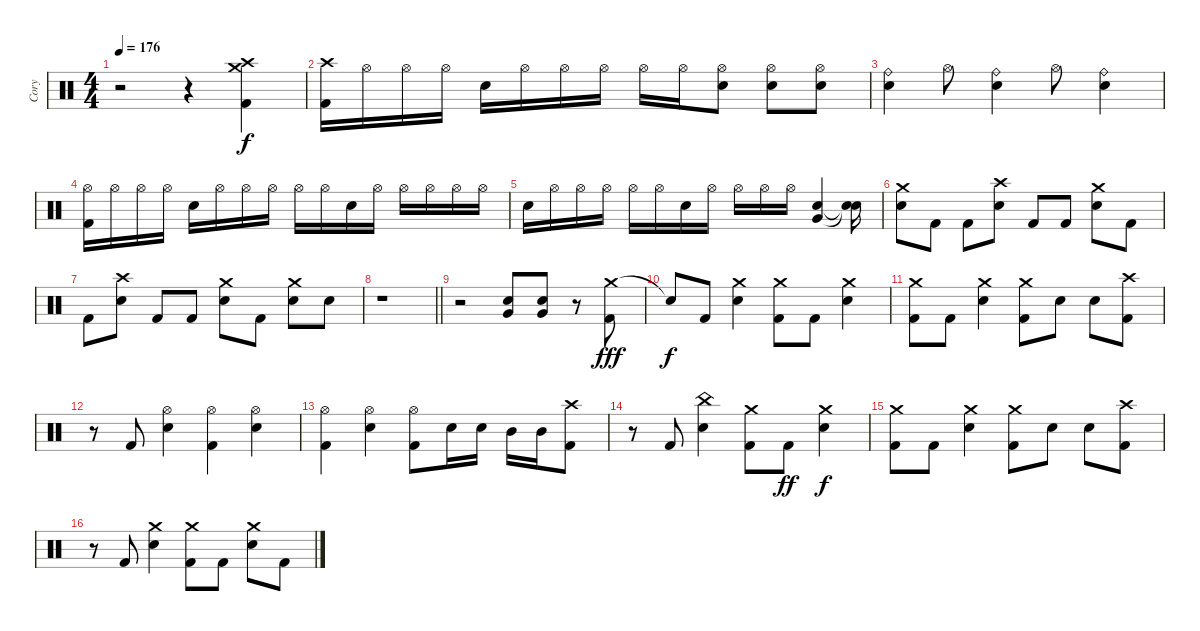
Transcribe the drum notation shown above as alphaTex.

\track ("Cory" "Cory") {instrument percussion}
\staff {score}
\articulation defaults
\ts (4 4)
\tempo 176
\clef neutral
\ks c
r.2{dy f} r.4 ("Crash high (hit)" "Crash medium (hit)" "Kick (hit) 2").4 |
("Crash high (hit)" "Kick (hit) 2").16 "Hi-Hat (open)".16 "Hi-Hat (open)".16 "Hi-Hat (open)".16 "Snare (hit) 2".16 "Hi-Hat (open)".16 "Hi-Hat (open)".16 "Hi-Hat (open)".16 "Hi-Hat (open)".16 "Hi-Hat (open)".16 ("Hi-Hat (open)" "Snare (hit) 2").8 ("Hi-Hat (open)" "Snare (hit) 2").8 ("Hi-Hat (open)" "Snare (hit) 2").8 |
("Ride (bell)" "Snare (hit) 2").4 "Hi-Hat (open)".8 ("Ride (bell)" "Snare (hit) 2").4 "Hi-Hat (open)".8 ("Ride (bell)" "Snare (hit) 2").4 |
("Hi-Hat (open)" "Kick (hit) 2").16 "Hi-Hat (open)".16 "Hi-Hat (open)".16 "Hi-Hat (open)".16 "Snare (hit) 2".16 "Hi-Hat (open)".16 "Hi-Hat (open)".16 "Hi-Hat (open)".16 "Hi-Hat (open)".16 "Hi-Hat (open)".16 "Snare (hit) 2".16 "Hi-Hat (open)".16 "Hi-Hat (open)".16 "Hi-Hat (open)".16 "Hi-Hat (open)".16 "Hi-Hat (open)".16 |
"Snare (hit) 2".16 "Hi-Hat (open)".16 "Hi-Hat (open)".16 "Hi-Hat (open)".16 "Hi-Hat (open)".16 "Hi-Hat (open)".16 "Snare (hit) 2".16 "Hi-Hat (open)".16 "Hi-Hat (open)".16 "Hi-Hat (open)".16 "Hi-Hat (open)".16 ("Very Low Tom (hit)" "Snare (hit) 2").4 ("Snare (hit)"{t} "Snare (hit)"{t}).16 |
("Crash medium (hit)" "Snare (hit) 2").8 "Kick (hit) 2".8 "Kick (hit) 2".8 ("Crash high (hit)" "Snare (hit) 2").8 "Kick (hit) 2".8 "Kick (hit) 2".8 ("Crash medium (hit)" "Snare (hit) 2").8 "Kick (hit) 2".8 |
"Kick (hit) 2".8 ("Crash high (hit)" "Snare (hit) 2").8 "Kick (hit) 2".8 "Kick (hit) 2".8 ("Crash medium (hit)" "Snare (hit) 2").8 "Kick (hit) 2".8 ("Crash medium (hit)" "Snare (hit) 2").8 "Snare (hit) 2".8 |
\barLineRight lightlight
r.1 |
r.2 ("Very Low Tom (hit)" "Snare (hit) 2").8 ("Very Low Tom (hit)" "Snare (hit) 2").8 r.8 ("Crash medium (hit)" "Kick (hit) 2").8{dy fff} |
"Snare (hit)"{t}.8{dy f} "Kick (hit) 2".8 ("Crash medium (hit)" "Snare (hit) 2").4 ("Crash medium (hit)" "Kick (hit) 2").8 "Kick (hit) 2".8 ("Crash medium (hit)" "Snare (hit) 2").4 |
("Crash medium (hit)" "Kick (hit) 2").8 "Kick (hit) 2".8 ("Crash medium (hit)" "Snare (hit) 2").4 ("Crash medium (hit)" "Kick (hit) 2").8 "Snare (hit) 2".8 "Snare (hit) 2".8 ("Crash high (hit)" "Kick (hit) 2").8 |
r.8 "Kick (hit) 2".8 ("Hi-Hat (open)" "Snare (hit) 2").4 ("Hi-Hat (open)" "Kick (hit) 2").4 ("Hi-Hat (open)" "Snare (hit) 2").4 |
("Hi-Hat (open)" "Kick (hit) 2").4 ("Hi-Hat (open)" "Snare (hit) 2").4 ("Hi-Hat (open)" "Kick (hit) 2").8 "Snare (hit) 2".16 "Snare (hit) 2".16 "Mid Tom (hit)".16 "Mid Tom (hit)".16 ("Crash high (hit)" "Kick (hit) 2").8 |
r.8 "Kick (hit) 2".8 ("China (hit)" "Snare (hit) 2").4 ("Crash medium (hit)" "Kick (hit) 2").8 "Kick (hit) 2".8{dy ff} ("Crash medium (hit)" "Snare (hit) 2").4{dy f} |
("Crash medium (hit)" "Kick (hit) 2").8 "Kick (hit) 2".8 ("Crash medium (hit)" "Snare (hit) 2").4 ("Crash medium (hit)" "Kick (hit) 2").8 "Snare (hit) 2".8 "Snare (hit) 2".8 ("Crash high (hit)" "Kick (hit) 2").8 |
r.8 "Kick (hit) 2".8 ("Crash medium (hit)" "Snare (hit) 2").4 ("Crash medium (hit)" "Kick (hit) 2").8 "Kick (hit) 2".8 ("Crash medium (hit)" "Snare (hit) 2").8 "Kick (hit) 2".8
